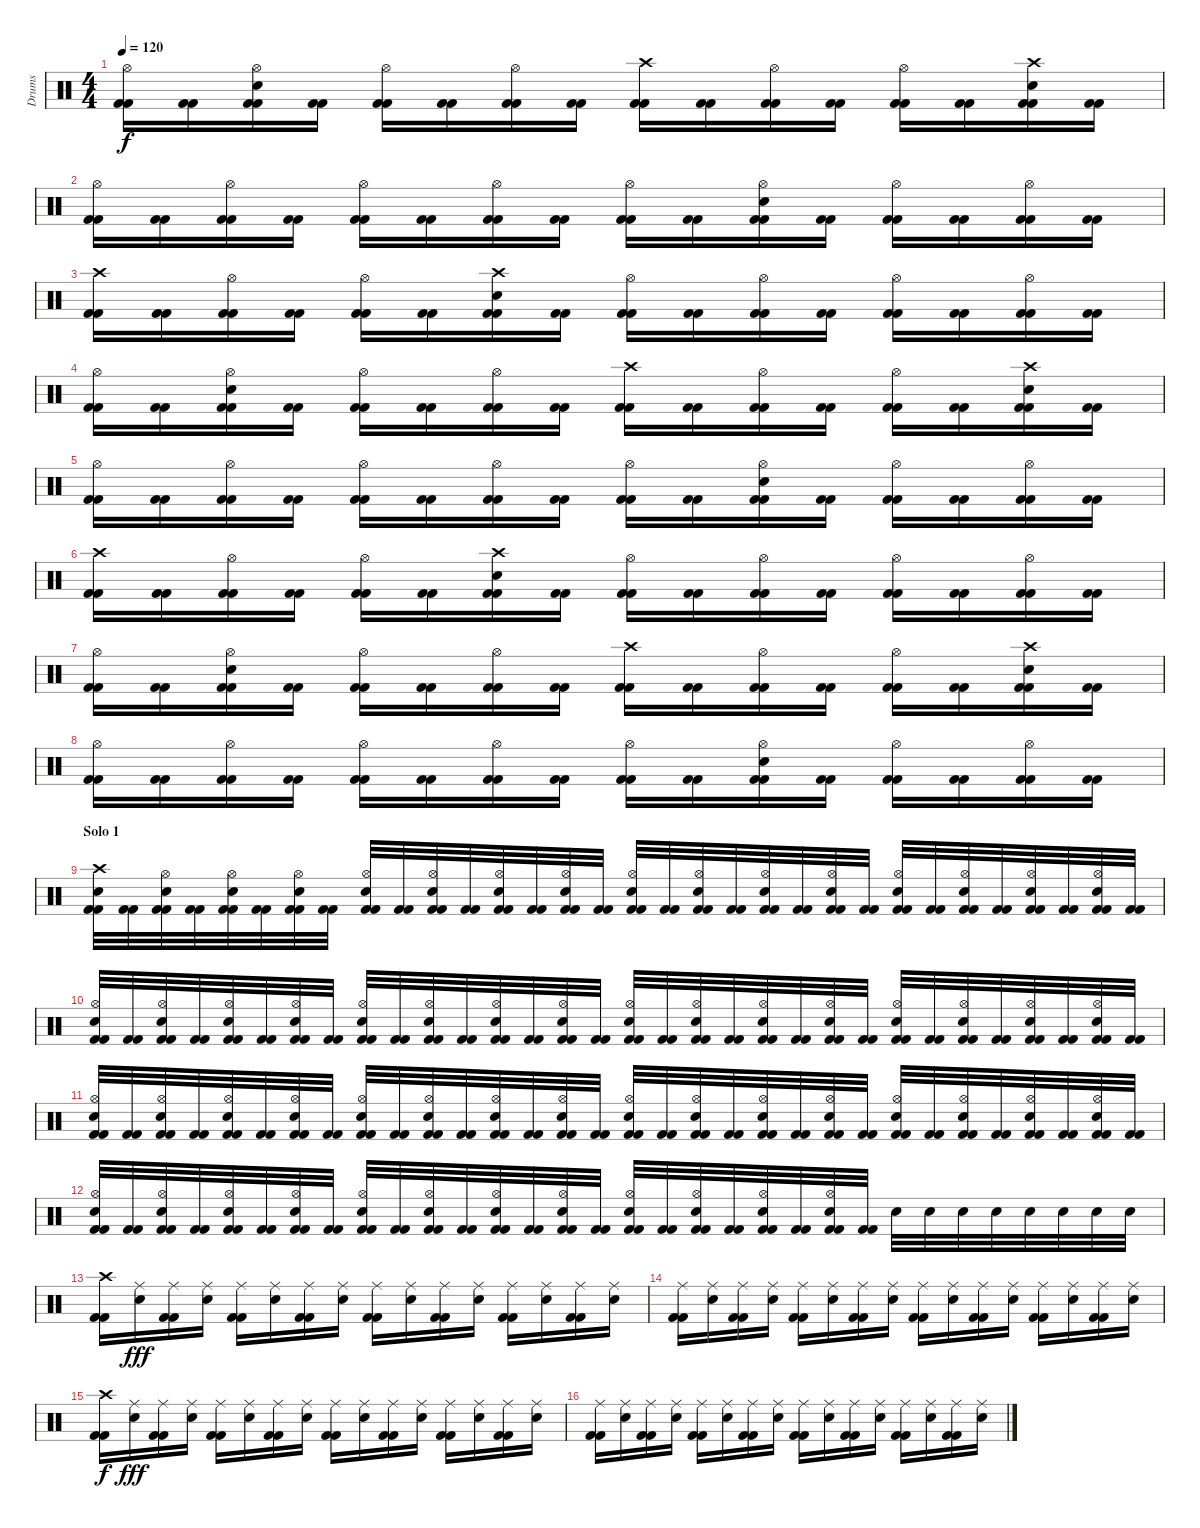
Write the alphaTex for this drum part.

\track ("Drums" "Drums") {instrument percussion}
\staff {score}
\articulation defaults
\ts (4 4)
\tempo 120
\clef neutral
\ks c
("Kick (hit) 2" "Kick (hit) 2" "Hi-Hat (open)").16{dy f} ("Kick (hit) 2" "Kick (hit) 2").16 ("Kick (hit) 2" "Kick (hit) 2" "Electric Snare (hit)" "Hi-Hat (open)").16 ("Kick (hit) 2" "Kick (hit) 2").16 ("Kick (hit) 2" "Kick (hit) 2" "Hi-Hat (open)").16 ("Kick (hit) 2" "Kick (hit) 2").16 ("Kick (hit) 2" "Kick (hit) 2" "Hi-Hat (open)").16 ("Kick (hit) 2" "Kick (hit) 2").16 ("Kick (hit) 2" "Kick (hit) 2" "Crash high (hit)").16 ("Kick (hit) 2" "Kick (hit) 2").16 ("Kick (hit) 2" "Kick (hit) 2" "Hi-Hat (open)").16 ("Kick (hit) 2" "Kick (hit) 2").16 ("Kick (hit) 2" "Kick (hit) 2" "Hi-Hat (open)").16 ("Kick (hit) 2" "Kick (hit) 2").16 ("Kick (hit) 2" "Kick (hit) 2" "Electric Snare (hit)" "Crash high (hit)").16 ("Kick (hit) 2" "Kick (hit) 2").16 |
("Kick (hit) 2" "Kick (hit) 2" "Hi-Hat (open)").16 ("Kick (hit) 2" "Kick (hit) 2").16 ("Kick (hit) 2" "Kick (hit) 2" "Hi-Hat (open)").16 ("Kick (hit) 2" "Kick (hit) 2").16 ("Kick (hit) 2" "Kick (hit) 2" "Hi-Hat (open)").16 ("Kick (hit) 2" "Kick (hit) 2").16 ("Kick (hit) 2" "Kick (hit) 2" "Hi-Hat (open)").16 ("Kick (hit) 2" "Kick (hit) 2").16 ("Kick (hit) 2" "Kick (hit) 2" "Hi-Hat (open)").16 ("Kick (hit) 2" "Kick (hit) 2").16 ("Kick (hit) 2" "Kick (hit) 2" "Electric Snare (hit)" "Hi-Hat (open)").16 ("Kick (hit) 2" "Kick (hit) 2").16 ("Kick (hit) 2" "Kick (hit) 2" "Hi-Hat (open)").16 ("Kick (hit) 2" "Kick (hit) 2").16 ("Kick (hit) 2" "Kick (hit) 2" "Hi-Hat (open)").16 ("Kick (hit) 2" "Kick (hit) 2").16 |
("Kick (hit) 2" "Kick (hit) 2" "Crash high (hit)").16 ("Kick (hit) 2" "Kick (hit) 2").16 ("Kick (hit) 2" "Kick (hit) 2" "Hi-Hat (open)").16 ("Kick (hit) 2" "Kick (hit) 2").16 ("Kick (hit) 2" "Kick (hit) 2" "Hi-Hat (open)").16 ("Kick (hit) 2" "Kick (hit) 2").16 ("Kick (hit) 2" "Kick (hit) 2" "Electric Snare (hit)" "Crash high (hit)").16 ("Kick (hit) 2" "Kick (hit) 2").16 ("Kick (hit) 2" "Kick (hit) 2" "Hi-Hat (open)").16 ("Kick (hit) 2" "Kick (hit) 2").16 ("Kick (hit) 2" "Kick (hit) 2" "Hi-Hat (open)").16 ("Kick (hit) 2" "Kick (hit) 2").16 ("Kick (hit) 2" "Kick (hit) 2" "Hi-Hat (open)").16 ("Kick (hit) 2" "Kick (hit) 2").16 ("Kick (hit) 2" "Kick (hit) 2" "Hi-Hat (open)").16 ("Kick (hit) 2" "Kick (hit) 2").16 |
("Kick (hit) 2" "Kick (hit) 2" "Hi-Hat (open)").16 ("Kick (hit) 2" "Kick (hit) 2").16 ("Kick (hit) 2" "Kick (hit) 2" "Electric Snare (hit)" "Hi-Hat (open)").16 ("Kick (hit) 2" "Kick (hit) 2").16 ("Kick (hit) 2" "Kick (hit) 2" "Hi-Hat (open)").16 ("Kick (hit) 2" "Kick (hit) 2").16 ("Kick (hit) 2" "Kick (hit) 2" "Hi-Hat (open)").16 ("Kick (hit) 2" "Kick (hit) 2").16 ("Kick (hit) 2" "Kick (hit) 2" "Crash high (hit)").16 ("Kick (hit) 2" "Kick (hit) 2").16 ("Kick (hit) 2" "Kick (hit) 2" "Hi-Hat (open)").16 ("Kick (hit) 2" "Kick (hit) 2").16 ("Kick (hit) 2" "Kick (hit) 2" "Hi-Hat (open)").16 ("Kick (hit) 2" "Kick (hit) 2").16 ("Kick (hit) 2" "Kick (hit) 2" "Electric Snare (hit)" "Crash high (hit)").16 ("Kick (hit) 2" "Kick (hit) 2").16 |
("Kick (hit) 2" "Kick (hit) 2" "Hi-Hat (open)").16 ("Kick (hit) 2" "Kick (hit) 2").16 ("Kick (hit) 2" "Kick (hit) 2" "Hi-Hat (open)").16 ("Kick (hit) 2" "Kick (hit) 2").16 ("Kick (hit) 2" "Kick (hit) 2" "Hi-Hat (open)").16 ("Kick (hit) 2" "Kick (hit) 2").16 ("Kick (hit) 2" "Kick (hit) 2" "Hi-Hat (open)").16 ("Kick (hit) 2" "Kick (hit) 2").16 ("Kick (hit) 2" "Kick (hit) 2" "Hi-Hat (open)").16 ("Kick (hit) 2" "Kick (hit) 2").16 ("Kick (hit) 2" "Kick (hit) 2" "Electric Snare (hit)" "Hi-Hat (open)").16 ("Kick (hit) 2" "Kick (hit) 2").16 ("Kick (hit) 2" "Kick (hit) 2" "Hi-Hat (open)").16 ("Kick (hit) 2" "Kick (hit) 2").16 ("Kick (hit) 2" "Kick (hit) 2" "Hi-Hat (open)").16 ("Kick (hit) 2" "Kick (hit) 2").16 |
("Kick (hit) 2" "Kick (hit) 2" "Crash high (hit)").16 ("Kick (hit) 2" "Kick (hit) 2").16 ("Kick (hit) 2" "Kick (hit) 2" "Hi-Hat (open)").16 ("Kick (hit) 2" "Kick (hit) 2").16 ("Kick (hit) 2" "Kick (hit) 2" "Hi-Hat (open)").16 ("Kick (hit) 2" "Kick (hit) 2").16 ("Kick (hit) 2" "Kick (hit) 2" "Electric Snare (hit)" "Crash high (hit)").16 ("Kick (hit) 2" "Kick (hit) 2").16 ("Kick (hit) 2" "Kick (hit) 2" "Hi-Hat (open)").16 ("Kick (hit) 2" "Kick (hit) 2").16 ("Kick (hit) 2" "Kick (hit) 2" "Hi-Hat (open)").16 ("Kick (hit) 2" "Kick (hit) 2").16 ("Kick (hit) 2" "Kick (hit) 2" "Hi-Hat (open)").16 ("Kick (hit) 2" "Kick (hit) 2").16 ("Kick (hit) 2" "Kick (hit) 2" "Hi-Hat (open)").16 ("Kick (hit) 2" "Kick (hit) 2").16 |
("Kick (hit) 2" "Kick (hit) 2" "Hi-Hat (open)").16 ("Kick (hit) 2" "Kick (hit) 2").16 ("Kick (hit) 2" "Kick (hit) 2" "Electric Snare (hit)" "Hi-Hat (open)").16 ("Kick (hit) 2" "Kick (hit) 2").16 ("Kick (hit) 2" "Kick (hit) 2" "Hi-Hat (open)").16 ("Kick (hit) 2" "Kick (hit) 2").16 ("Kick (hit) 2" "Kick (hit) 2" "Hi-Hat (open)").16 ("Kick (hit) 2" "Kick (hit) 2").16 ("Kick (hit) 2" "Kick (hit) 2" "Crash high (hit)").16 ("Kick (hit) 2" "Kick (hit) 2").16 ("Kick (hit) 2" "Kick (hit) 2" "Hi-Hat (open)").16 ("Kick (hit) 2" "Kick (hit) 2").16 ("Kick (hit) 2" "Kick (hit) 2" "Hi-Hat (open)").16 ("Kick (hit) 2" "Kick (hit) 2").16 ("Kick (hit) 2" "Kick (hit) 2" "Electric Snare (hit)" "Crash high (hit)").16 ("Kick (hit) 2" "Kick (hit) 2").16 |
("Kick (hit) 2" "Kick (hit) 2" "Hi-Hat (open)").16 ("Kick (hit) 2" "Kick (hit) 2").16 ("Kick (hit) 2" "Kick (hit) 2" "Hi-Hat (open)").16 ("Kick (hit) 2" "Kick (hit) 2").16 ("Kick (hit) 2" "Kick (hit) 2" "Hi-Hat (open)").16 ("Kick (hit) 2" "Kick (hit) 2").16 ("Kick (hit) 2" "Kick (hit) 2" "Hi-Hat (open)").16 ("Kick (hit) 2" "Kick (hit) 2").16 ("Kick (hit) 2" "Kick (hit) 2" "Hi-Hat (open)").16 ("Kick (hit) 2" "Kick (hit) 2").16 ("Kick (hit) 2" "Kick (hit) 2" "Electric Snare (hit)" "Hi-Hat (open)").16 ("Kick (hit) 2" "Kick (hit) 2").16 ("Kick (hit) 2" "Kick (hit) 2" "Hi-Hat (open)").16 ("Kick (hit) 2" "Kick (hit) 2").16 ("Kick (hit) 2" "Kick (hit) 2" "Hi-Hat (open)").16 ("Kick (hit) 2" "Kick (hit) 2").16 |
\section ("" "Solo 1")
("Kick (hit) 2" "Kick (hit) 2" "Electric Snare (hit)" "Crash high (hit)").32 ("Kick (hit) 2" "Kick (hit) 2").32 ("Kick (hit) 2" "Kick (hit) 2" "Electric Snare (hit)" "Hi-Hat (open)").32 ("Kick (hit) 2" "Kick (hit) 2").32 ("Kick (hit) 2" "Kick (hit) 2" "Electric Snare (hit)" "Hi-Hat (open)").32 ("Kick (hit) 2" "Kick (hit) 2").32 ("Kick (hit) 2" "Kick (hit) 2" "Electric Snare (hit)" "Hi-Hat (open)").32 ("Kick (hit) 2" "Kick (hit) 2").32 ("Kick (hit) 2" "Kick (hit) 2" "Electric Snare (hit)" "Hi-Hat (open)").32 ("Kick (hit) 2" "Kick (hit) 2").32 ("Kick (hit) 2" "Kick (hit) 2" "Electric Snare (hit)" "Hi-Hat (open)").32 ("Kick (hit) 2" "Kick (hit) 2").32 ("Kick (hit) 2" "Kick (hit) 2" "Electric Snare (hit)" "Hi-Hat (open)").32 ("Kick (hit) 2" "Kick (hit) 2").32 ("Kick (hit) 2" "Kick (hit) 2" "Electric Snare (hit)" "Hi-Hat (open)").32 ("Kick (hit) 2" "Kick (hit) 2").32 ("Kick (hit) 2" "Kick (hit) 2" "Electric Snare (hit)" "Hi-Hat (open)").32 ("Kick (hit) 2" "Kick (hit) 2").32 ("Kick (hit) 2" "Kick (hit) 2" "Electric Snare (hit)" "Hi-Hat (open)").32 ("Kick (hit) 2" "Kick (hit) 2").32 ("Kick (hit) 2" "Kick (hit) 2" "Electric Snare (hit)" "Hi-Hat (open)").32 ("Kick (hit) 2" "Kick (hit) 2").32 ("Kick (hit) 2" "Kick (hit) 2" "Electric Snare (hit)" "Hi-Hat (open)").32 ("Kick (hit) 2" "Kick (hit) 2").32 ("Kick (hit) 2" "Kick (hit) 2" "Electric Snare (hit)" "Hi-Hat (open)").32 ("Kick (hit) 2" "Kick (hit) 2").32 ("Kick (hit) 2" "Kick (hit) 2" "Electric Snare (hit)" "Hi-Hat (open)").32 ("Kick (hit) 2" "Kick (hit) 2").32 ("Kick (hit) 2" "Kick (hit) 2" "Electric Snare (hit)" "Hi-Hat (open)").32 ("Kick (hit) 2" "Kick (hit) 2").32 ("Kick (hit) 2" "Kick (hit) 2" "Electric Snare (hit)" "Hi-Hat (open)").32 ("Kick (hit) 2" "Kick (hit) 2").32 |
("Kick (hit) 2" "Kick (hit) 2" "Electric Snare (hit)" "Hi-Hat (open)").32 ("Kick (hit) 2" "Kick (hit) 2").32 ("Kick (hit) 2" "Kick (hit) 2" "Electric Snare (hit)" "Hi-Hat (open)").32 ("Kick (hit) 2" "Kick (hit) 2").32 ("Kick (hit) 2" "Kick (hit) 2" "Electric Snare (hit)" "Hi-Hat (open)").32 ("Kick (hit) 2" "Kick (hit) 2").32 ("Kick (hit) 2" "Kick (hit) 2" "Electric Snare (hit)" "Hi-Hat (open)").32 ("Kick (hit) 2" "Kick (hit) 2").32 ("Kick (hit) 2" "Kick (hit) 2" "Electric Snare (hit)" "Hi-Hat (open)").32 ("Kick (hit) 2" "Kick (hit) 2").32 ("Kick (hit) 2" "Kick (hit) 2" "Electric Snare (hit)" "Hi-Hat (open)").32 ("Kick (hit) 2" "Kick (hit) 2").32 ("Kick (hit) 2" "Kick (hit) 2" "Electric Snare (hit)" "Hi-Hat (open)").32 ("Kick (hit) 2" "Kick (hit) 2").32 ("Kick (hit) 2" "Kick (hit) 2" "Electric Snare (hit)" "Hi-Hat (open)").32 ("Kick (hit) 2" "Kick (hit) 2").32 ("Kick (hit) 2" "Kick (hit) 2" "Electric Snare (hit)" "Hi-Hat (open)").32 ("Kick (hit) 2" "Kick (hit) 2").32 ("Kick (hit) 2" "Kick (hit) 2" "Electric Snare (hit)" "Hi-Hat (open)").32 ("Kick (hit) 2" "Kick (hit) 2").32 ("Kick (hit) 2" "Kick (hit) 2" "Electric Snare (hit)" "Hi-Hat (open)").32 ("Kick (hit) 2" "Kick (hit) 2").32 ("Kick (hit) 2" "Kick (hit) 2" "Electric Snare (hit)" "Hi-Hat (open)").32 ("Kick (hit) 2" "Kick (hit) 2").32 ("Kick (hit) 2" "Kick (hit) 2" "Electric Snare (hit)" "Hi-Hat (open)").32 ("Kick (hit) 2" "Kick (hit) 2").32 ("Kick (hit) 2" "Kick (hit) 2" "Electric Snare (hit)" "Hi-Hat (open)").32 ("Kick (hit) 2" "Kick (hit) 2").32 ("Kick (hit) 2" "Kick (hit) 2" "Electric Snare (hit)" "Hi-Hat (open)").32 ("Kick (hit) 2" "Kick (hit) 2").32 ("Kick (hit) 2" "Kick (hit) 2" "Electric Snare (hit)" "Hi-Hat (open)").32 ("Kick (hit) 2" "Kick (hit) 2").32 |
("Kick (hit) 2" "Kick (hit) 2" "Electric Snare (hit)" "Hi-Hat (open)").32 ("Kick (hit) 2" "Kick (hit) 2").32 ("Kick (hit) 2" "Kick (hit) 2" "Electric Snare (hit)" "Hi-Hat (open)").32 ("Kick (hit) 2" "Kick (hit) 2").32 ("Kick (hit) 2" "Kick (hit) 2" "Electric Snare (hit)" "Hi-Hat (open)").32 ("Kick (hit) 2" "Kick (hit) 2").32 ("Kick (hit) 2" "Kick (hit) 2" "Electric Snare (hit)" "Hi-Hat (open)").32 ("Kick (hit) 2" "Kick (hit) 2").32 ("Kick (hit) 2" "Kick (hit) 2" "Electric Snare (hit)" "Hi-Hat (open)").32 ("Kick (hit) 2" "Kick (hit) 2").32 ("Kick (hit) 2" "Kick (hit) 2" "Electric Snare (hit)" "Hi-Hat (open)").32 ("Kick (hit) 2" "Kick (hit) 2").32 ("Kick (hit) 2" "Kick (hit) 2" "Electric Snare (hit)" "Hi-Hat (open)").32 ("Kick (hit) 2" "Kick (hit) 2").32 ("Kick (hit) 2" "Kick (hit) 2" "Electric Snare (hit)" "Hi-Hat (open)").32 ("Kick (hit) 2" "Kick (hit) 2").32 ("Kick (hit) 2" "Kick (hit) 2" "Electric Snare (hit)" "Hi-Hat (open)").32 ("Kick (hit) 2" "Kick (hit) 2").32 ("Kick (hit) 2" "Kick (hit) 2" "Electric Snare (hit)" "Hi-Hat (open)").32 ("Kick (hit) 2" "Kick (hit) 2").32 ("Kick (hit) 2" "Kick (hit) 2" "Electric Snare (hit)" "Hi-Hat (open)").32 ("Kick (hit) 2" "Kick (hit) 2").32 ("Kick (hit) 2" "Kick (hit) 2" "Electric Snare (hit)" "Hi-Hat (open)").32 ("Kick (hit) 2" "Kick (hit) 2").32 ("Kick (hit) 2" "Kick (hit) 2" "Electric Snare (hit)" "Hi-Hat (open)").32 ("Kick (hit) 2" "Kick (hit) 2").32 ("Kick (hit) 2" "Kick (hit) 2" "Electric Snare (hit)" "Hi-Hat (open)").32 ("Kick (hit) 2" "Kick (hit) 2").32 ("Kick (hit) 2" "Kick (hit) 2" "Electric Snare (hit)" "Hi-Hat (open)").32 ("Kick (hit) 2" "Kick (hit) 2").32 ("Kick (hit) 2" "Kick (hit) 2" "Electric Snare (hit)" "Hi-Hat (open)").32 ("Kick (hit) 2" "Kick (hit) 2").32 |
("Kick (hit) 2" "Kick (hit) 2" "Electric Snare (hit)" "Hi-Hat (open)").32 ("Kick (hit) 2" "Kick (hit) 2").32 ("Kick (hit) 2" "Kick (hit) 2" "Electric Snare (hit)" "Hi-Hat (open)").32 ("Kick (hit) 2" "Kick (hit) 2").32 ("Kick (hit) 2" "Kick (hit) 2" "Electric Snare (hit)" "Hi-Hat (open)").32 ("Kick (hit) 2" "Kick (hit) 2").32 ("Kick (hit) 2" "Kick (hit) 2" "Electric Snare (hit)" "Hi-Hat (open)").32 ("Kick (hit) 2" "Kick (hit) 2").32 ("Kick (hit) 2" "Kick (hit) 2" "Electric Snare (hit)" "Hi-Hat (open)").32 ("Kick (hit) 2" "Kick (hit) 2").32 ("Kick (hit) 2" "Kick (hit) 2" "Electric Snare (hit)" "Hi-Hat (open)").32 ("Kick (hit) 2" "Kick (hit) 2").32 ("Kick (hit) 2" "Kick (hit) 2" "Electric Snare (hit)" "Hi-Hat (open)").32 ("Kick (hit) 2" "Kick (hit) 2").32 ("Kick (hit) 2" "Kick (hit) 2" "Electric Snare (hit)" "Hi-Hat (open)").32 ("Kick (hit) 2" "Kick (hit) 2").32 ("Kick (hit) 2" "Kick (hit) 2" "Electric Snare (hit)" "Hi-Hat (open)").32 ("Kick (hit) 2" "Kick (hit) 2").32 ("Kick (hit) 2" "Kick (hit) 2" "Electric Snare (hit)" "Hi-Hat (open)").32 ("Kick (hit) 2" "Kick (hit) 2").32 ("Kick (hit) 2" "Kick (hit) 2" "Electric Snare (hit)" "Hi-Hat (open)").32 ("Kick (hit) 2" "Kick (hit) 2").32 ("Kick (hit) 2" "Kick (hit) 2" "Electric Snare (hit)" "Hi-Hat (open)").32 ("Kick (hit) 2" "Kick (hit) 2").32 "Electric Snare (hit)".32 "Electric Snare (hit)".32 "Electric Snare (hit)".32 "Electric Snare (hit)".32 "Electric Snare (hit)".32 "Electric Snare (hit)".32 "Electric Snare (hit)".32 "Electric Snare (hit)".32 |
("Kick (hit) 2" "Kick (hit) 2" "Crash high (hit)").16 ("Electric Snare (hit)" "Ride (middle)").16{dy fff} ("Kick (hit) 2" "Kick (hit) 2" "Ride (middle)").16 ("Electric Snare (hit)" "Ride (middle)").16 ("Kick (hit) 2" "Kick (hit) 2" "Ride (middle)").16 ("Electric Snare (hit)" "Ride (middle)").16 ("Kick (hit) 2" "Kick (hit) 2" "Ride (middle)").16 ("Electric Snare (hit)" "Ride (middle)").16 ("Kick (hit) 2" "Kick (hit) 2" "Ride (middle)").16 ("Electric Snare (hit)" "Ride (middle)").16 ("Kick (hit) 2" "Kick (hit) 2" "Ride (middle)").16 ("Electric Snare (hit)" "Ride (middle)").16 ("Kick (hit) 2" "Kick (hit) 2" "Ride (middle)").16 ("Electric Snare (hit)" "Ride (middle)").16 ("Kick (hit) 2" "Kick (hit) 2" "Ride (middle)").16 ("Electric Snare (hit)" "Ride (middle)").16 |
("Kick (hit) 2" "Kick (hit) 2" "Ride (middle)").16 ("Electric Snare (hit)" "Ride (middle)").16 ("Kick (hit) 2" "Kick (hit) 2" "Ride (middle)").16 ("Electric Snare (hit)" "Ride (middle)").16 ("Kick (hit) 2" "Kick (hit) 2" "Ride (middle)").16 ("Electric Snare (hit)" "Ride (middle)").16 ("Kick (hit) 2" "Kick (hit) 2" "Ride (middle)").16 ("Electric Snare (hit)" "Ride (middle)").16 ("Kick (hit) 2" "Kick (hit) 2" "Ride (middle)").16 ("Electric Snare (hit)" "Ride (middle)").16 ("Kick (hit) 2" "Kick (hit) 2" "Ride (middle)").16 ("Electric Snare (hit)" "Ride (middle)").16 ("Kick (hit) 2" "Kick (hit) 2" "Ride (middle)").16 ("Electric Snare (hit)" "Ride (middle)").16 ("Kick (hit) 2" "Kick (hit) 2" "Ride (middle)").16 ("Electric Snare (hit)" "Ride (middle)").16 |
("Kick (hit) 2" "Kick (hit) 2" "Crash high (hit)").16{dy f} ("Electric Snare (hit)" "Ride (middle)").16{dy fff} ("Kick (hit) 2" "Kick (hit) 2" "Ride (middle)").16 ("Electric Snare (hit)" "Ride (middle)").16 ("Kick (hit) 2" "Kick (hit) 2" "Ride (middle)").16 ("Electric Snare (hit)" "Ride (middle)").16 ("Kick (hit) 2" "Kick (hit) 2" "Ride (middle)").16 ("Electric Snare (hit)" "Ride (middle)").16 ("Kick (hit) 2" "Kick (hit) 2" "Ride (middle)").16 ("Electric Snare (hit)" "Ride (middle)").16 ("Kick (hit) 2" "Kick (hit) 2" "Ride (middle)").16 ("Electric Snare (hit)" "Ride (middle)").16 ("Kick (hit) 2" "Kick (hit) 2" "Ride (middle)").16 ("Electric Snare (hit)" "Ride (middle)").16 ("Kick (hit) 2" "Kick (hit) 2" "Ride (middle)").16 ("Electric Snare (hit)" "Ride (middle)").16 |
("Kick (hit) 2" "Kick (hit) 2" "Ride (middle)").16 ("Electric Snare (hit)" "Ride (middle)").16 ("Kick (hit) 2" "Kick (hit) 2" "Ride (middle)").16 ("Electric Snare (hit)" "Ride (middle)").16 ("Kick (hit) 2" "Kick (hit) 2" "Ride (middle)").16 ("Electric Snare (hit)" "Ride (middle)").16 ("Kick (hit) 2" "Kick (hit) 2" "Ride (middle)").16 ("Electric Snare (hit)" "Ride (middle)").16 ("Kick (hit) 2" "Kick (hit) 2" "Ride (middle)").16 ("Electric Snare (hit)" "Ride (middle)").16 ("Kick (hit) 2" "Kick (hit) 2" "Ride (middle)").16 ("Electric Snare (hit)" "Ride (middle)").16 ("Kick (hit) 2" "Kick (hit) 2" "Ride (middle)").16 ("Electric Snare (hit)" "Ride (middle)").16 ("Kick (hit) 2" "Kick (hit) 2" "Ride (middle)").16 ("Electric Snare (hit)" "Ride (middle)").16
